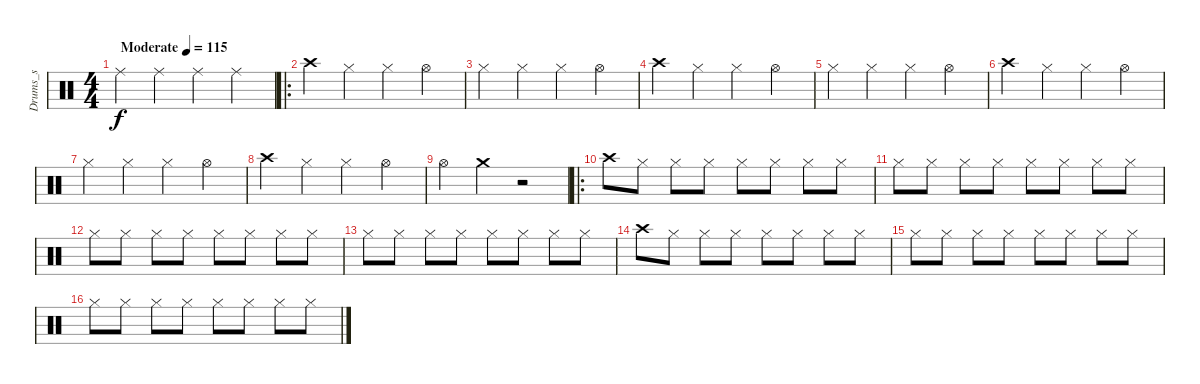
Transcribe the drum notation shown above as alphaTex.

\track ("Drums_s" "Drums_s") {instrument percussion}
\staff {score}
\articulation defaults
\ts (4 4)
\tempo (115 "Moderate")
\clef neutral
\ks c "Ride (middle)".4{dy f} "Ride (middle)".4 "Ride (middle)".4 "Ride (middle)".4
|
\ro "Crash high (hit)".4 "Hi-Hat (closed)".4 "Hi-Hat (closed)".4 "Hi-Hat (open)".4
|
"Hi-Hat (closed)".4 "Hi-Hat (closed)".4 "Hi-Hat (closed)".4 "Hi-Hat (open)".4 |
"Crash high (hit)".4 "Hi-Hat (closed)".4 "Hi-Hat (closed)".4 "Hi-Hat (open)".4 |
"Hi-Hat (closed)".4 "Hi-Hat (closed)".4 "Hi-Hat (closed)".4 "Hi-Hat (open)".4 |
"Crash high (hit)".4 "Hi-Hat (closed)".4 "Hi-Hat (closed)".4 "Hi-Hat (open)".4 |
"Hi-Hat (closed)".4 "Hi-Hat (closed)".4 "Hi-Hat (closed)".4 "Hi-Hat (open)".4 |
"Crash high (hit)".4 "Hi-Hat (closed)".4 "Hi-Hat (closed)".4 "Hi-Hat (open)".4 |
"Hi-Hat (open)".4 "Crash medium (hit)".4 r.2 |
\ro "Crash high (hit)".8 "Hi-Hat (closed)".8 "Hi-Hat (closed)".8 "Hi-Hat (closed)".8 "Hi-Hat (closed)".8 "Hi-Hat (closed)".8 "Hi-Hat (closed)".8 "Hi-Hat (closed)".8
|
"Hi-Hat (closed)".8 "Hi-Hat (closed)".8 "Hi-Hat (closed)".8 "Hi-Hat (closed)".8 "Hi-Hat (closed)".8 "Hi-Hat (closed)".8 "Hi-Hat (closed)".8 "Hi-Hat (closed)".8 |
"Hi-Hat (closed)".8 "Hi-Hat (closed)".8 "Hi-Hat (closed)".8 "Hi-Hat (closed)".8 "Hi-Hat (closed)".8 "Hi-Hat (closed)".8 "Hi-Hat (closed)".8 "Hi-Hat (closed)".8 |
"Hi-Hat (closed)".8 "Hi-Hat (closed)".8 "Hi-Hat (closed)".8 "Hi-Hat (closed)".8 "Hi-Hat (closed)".8 "Hi-Hat (closed)".8 "Hi-Hat (closed)".8 "Hi-Hat (closed)".8 |
"Crash high (hit)".8 "Hi-Hat (closed)".8 "Hi-Hat (closed)".8 "Hi-Hat (closed)".8 "Hi-Hat (closed)".8 "Hi-Hat (closed)".8 "Hi-Hat (closed)".8 "Hi-Hat (closed)".8 |
"Hi-Hat (closed)".8 "Hi-Hat (closed)".8 "Hi-Hat (closed)".8 "Hi-Hat (closed)".8 "Hi-Hat (closed)".8 "Hi-Hat (closed)".8 "Hi-Hat (closed)".8 "Hi-Hat (closed)".8 |
"Hi-Hat (closed)".8 "Hi-Hat (closed)".8 "Hi-Hat (closed)".8 "Hi-Hat (closed)".8 "Hi-Hat (closed)".8 "Hi-Hat (closed)".8 "Hi-Hat (closed)".8 "Hi-Hat (closed)".8
